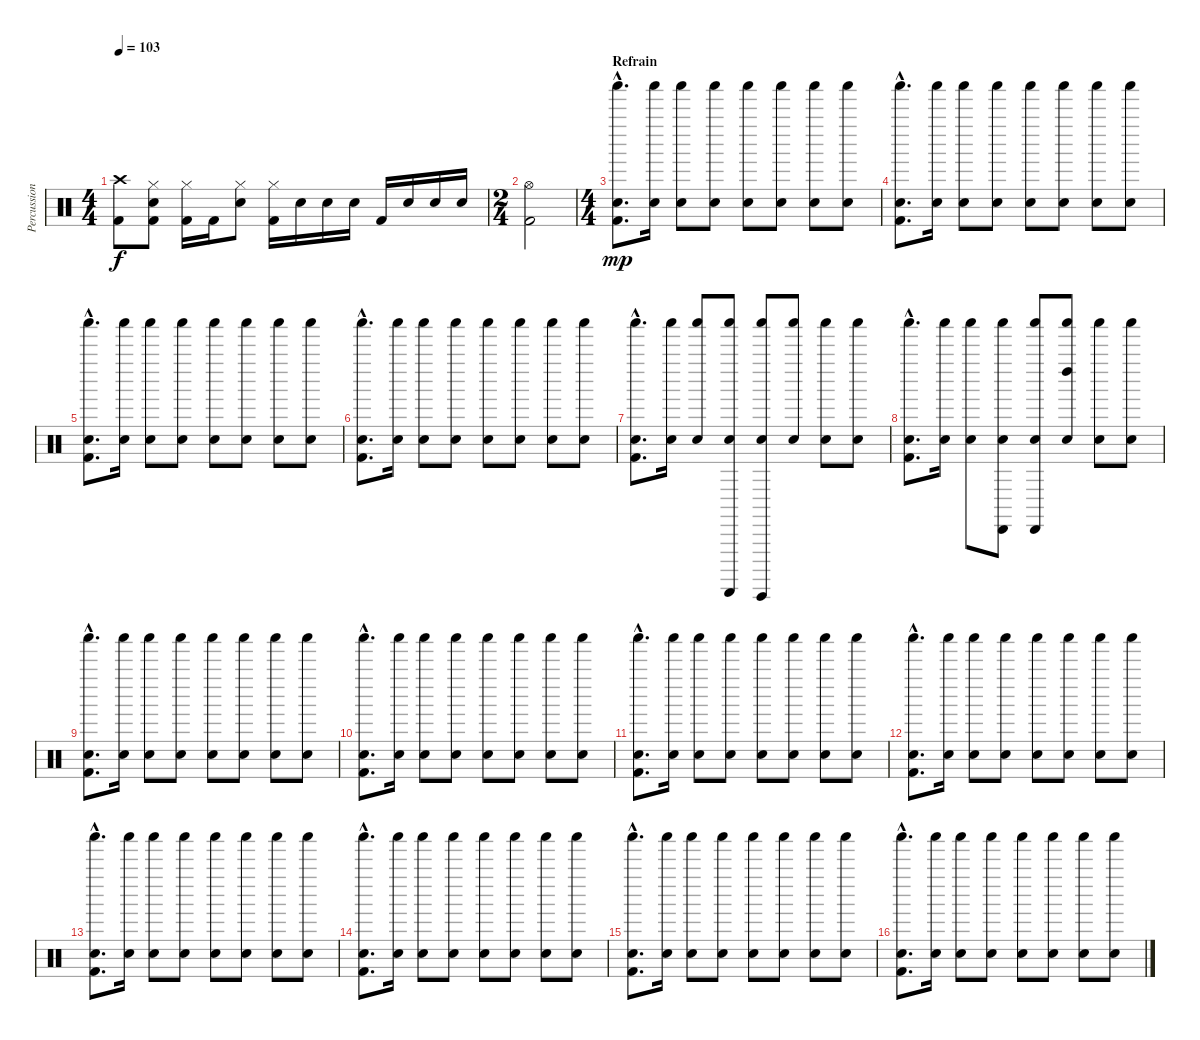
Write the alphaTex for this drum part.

\track ("Percussion" "Percussion") {instrument percussion}
\staff {score}
\articulation defaults
\ts (4 4)
\tempo 103
\clef neutral
\ks c
("Crash high (hit)" "Kick (hit) 2").8{dy f} ("Hi-Hat (closed)" "Electric Snare (hit)" "Kick (hit) 2").8 ("Hi-Hat (closed)" "Kick (hit) 2").16 "Kick (hit) 2".16 ("Hi-Hat (closed)" "Electric Snare (hit)").8 ("Hi-Hat (closed)" "Kick (hit) 2").16 "Electric Snare (hit)".16 "Electric Snare (hit)".16 "Electric Snare (hit)".16 "Kick (hit) 2".16 "Electric Snare (hit)".16 "Electric Snare (hit)".16 "Electric Snare (hit)".16 |
\ts (2 4)
("Hi-Hat (open)" "Kick (hit) 2").2 |
\ts (4 4)
\section ("" "Refrain")
("Electric Snare (hit)"{hac} "Shaker (hit)"{hac} "Kick (hit) 2"{hac}).8{d dy mp} ("Electric Snare (hit)" "Shaker (hit)").16 ("Electric Snare (hit)" "Shaker (hit)").8 ("Electric Snare (hit)" "Shaker (hit)").8 ("Electric Snare (hit)" "Shaker (hit)").8 ("Electric Snare (hit)" "Shaker (hit)").8 ("Electric Snare (hit)" "Shaker (hit)").8 ("Electric Snare (hit)" "Shaker (hit)").8 |
("Electric Snare (hit)"{hac} "Shaker (hit)"{hac} "Kick (hit) 2"{hac}).8{d} ("Electric Snare (hit)" "Shaker (hit)").16 ("Electric Snare (hit)" "Shaker (hit)").8 ("Electric Snare (hit)" "Shaker (hit)").8 ("Electric Snare (hit)" "Shaker (hit)").8 ("Electric Snare (hit)" "Shaker (hit)").8 ("Electric Snare (hit)" "Shaker (hit)").8 ("Electric Snare (hit)" "Shaker (hit)").8 |
("Electric Snare (hit)"{hac} "Shaker (hit)"{hac} "Kick (hit) 2"{hac}).8{d} ("Electric Snare (hit)" "Shaker (hit)").16 ("Electric Snare (hit)" "Shaker (hit)").8 ("Electric Snare (hit)" "Shaker (hit)").8 ("Electric Snare (hit)" "Shaker (hit)").8 ("Electric Snare (hit)" "Shaker (hit)").8 ("Electric Snare (hit)" "Shaker (hit)").8 ("Electric Snare (hit)" "Shaker (hit)").8 |
("Electric Snare (hit)"{hac} "Shaker (hit)"{hac} "Kick (hit) 2"{hac}).8{d} ("Electric Snare (hit)" "Shaker (hit)").16 ("Electric Snare (hit)" "Shaker (hit)").8 ("Electric Snare (hit)" "Shaker (hit)").8 ("Electric Snare (hit)" "Shaker (hit)").8 ("Electric Snare (hit)" "Shaker (hit)").8 ("Electric Snare (hit)" "Shaker (hit)").8 ("Electric Snare (hit)" "Shaker (hit)").8 |
("Electric Snare (hit)"{hac} "Shaker (hit)"{hac} "Kick (hit) 2"{hac}).8{d} ("Electric Snare (hit)" "Shaker (hit)").16 ("Electric Snare (hit)" "Shaker (hit)").8 ("Guiro (scrap-return)" "Electric Snare (hit)" "Shaker (hit)").8 ("Guiro (hit)" "Electric Snare (hit)" "Shaker (hit)").8 ("Electric Snare (hit)" "Shaker (hit)").8 ("Electric Snare (hit)" "Shaker (hit)").8 ("Electric Snare (hit)" "Shaker (hit)").8 |
("Electric Snare (hit)"{hac} "Shaker (hit)"{hac} "Kick (hit) 2"{hac}).8{d} ("Electric Snare (hit)" "Shaker (hit)").16 ("Electric Snare (hit)" "Shaker (hit)").8 ("Cabasa (hit)" "Electric Snare (hit)" "Shaker (hit)").8 ("Cabasa (hit)" "Electric Snare (hit)" "Shaker (hit)").8 ("Left Maraca (hit)" "Electric Snare (hit)" "Shaker (hit)").8 ("Electric Snare (hit)" "Shaker (hit)").8 ("Electric Snare (hit)" "Shaker (hit)").8 |
("Electric Snare (hit)"{hac} "Shaker (hit)"{hac} "Kick (hit) 2"{hac}).8{d} ("Electric Snare (hit)" "Shaker (hit)").16 ("Electric Snare (hit)" "Shaker (hit)").8 ("Electric Snare (hit)" "Shaker (hit)").8 ("Electric Snare (hit)" "Shaker (hit)").8 ("Electric Snare (hit)" "Shaker (hit)").8 ("Electric Snare (hit)" "Shaker (hit)").8 ("Electric Snare (hit)" "Shaker (hit)").8 |
("Electric Snare (hit)"{hac} "Shaker (hit)"{hac} "Kick (hit) 2"{hac}).8{d} ("Electric Snare (hit)" "Shaker (hit)").16 ("Electric Snare (hit)" "Shaker (hit)").8 ("Electric Snare (hit)" "Shaker (hit)").8 ("Electric Snare (hit)" "Shaker (hit)").8 ("Electric Snare (hit)" "Shaker (hit)").8 ("Electric Snare (hit)" "Shaker (hit)").8 ("Electric Snare (hit)" "Shaker (hit)").8 |
("Electric Snare (hit)"{hac} "Shaker (hit)"{hac} "Kick (hit) 2"{hac}).8{d} ("Electric Snare (hit)" "Shaker (hit)").16 ("Electric Snare (hit)" "Shaker (hit)").8 ("Electric Snare (hit)" "Shaker (hit)").8 ("Electric Snare (hit)" "Shaker (hit)").8 ("Electric Snare (hit)" "Shaker (hit)").8 ("Electric Snare (hit)" "Shaker (hit)").8 ("Electric Snare (hit)" "Shaker (hit)").8 |
("Electric Snare (hit)"{hac} "Shaker (hit)"{hac} "Kick (hit) 2"{hac}).8{d} ("Electric Snare (hit)" "Shaker (hit)").16 ("Electric Snare (hit)" "Shaker (hit)").8 ("Electric Snare (hit)" "Shaker (hit)").8 ("Electric Snare (hit)" "Shaker (hit)").8 ("Electric Snare (hit)" "Shaker (hit)").8 ("Electric Snare (hit)" "Shaker (hit)").8 ("Electric Snare (hit)" "Shaker (hit)").8 |
("Electric Snare (hit)"{hac} "Shaker (hit)"{hac} "Kick (hit) 2"{hac}).8{d} ("Electric Snare (hit)" "Shaker (hit)").16 ("Electric Snare (hit)" "Shaker (hit)").8 ("Electric Snare (hit)" "Shaker (hit)").8 ("Electric Snare (hit)" "Shaker (hit)").8 ("Electric Snare (hit)" "Shaker (hit)").8 ("Electric Snare (hit)" "Shaker (hit)").8 ("Electric Snare (hit)" "Shaker (hit)").8 |
("Electric Snare (hit)"{hac} "Shaker (hit)"{hac} "Kick (hit) 2"{hac}).8{d} ("Electric Snare (hit)" "Shaker (hit)").16 ("Electric Snare (hit)" "Shaker (hit)").8 ("Electric Snare (hit)" "Shaker (hit)").8 ("Electric Snare (hit)" "Shaker (hit)").8 ("Electric Snare (hit)" "Shaker (hit)").8 ("Electric Snare (hit)" "Shaker (hit)").8 ("Electric Snare (hit)" "Shaker (hit)").8 |
("Electric Snare (hit)"{hac} "Shaker (hit)"{hac} "Kick (hit) 2"{hac}).8{d} ("Electric Snare (hit)" "Shaker (hit)").16 ("Electric Snare (hit)" "Shaker (hit)").8 ("Electric Snare (hit)" "Shaker (hit)").8 ("Electric Snare (hit)" "Shaker (hit)").8 ("Electric Snare (hit)" "Shaker (hit)").8 ("Electric Snare (hit)" "Shaker (hit)").8 ("Electric Snare (hit)" "Shaker (hit)").8 |
("Electric Snare (hit)"{hac} "Shaker (hit)"{hac} "Kick (hit) 2"{hac}).8{d} ("Electric Snare (hit)" "Shaker (hit)").16 ("Electric Snare (hit)" "Shaker (hit)").8 ("Electric Snare (hit)" "Shaker (hit)").8 ("Electric Snare (hit)" "Shaker (hit)").8 ("Electric Snare (hit)" "Shaker (hit)").8 ("Electric Snare (hit)" "Shaker (hit)").8 ("Electric Snare (hit)" "Shaker (hit)").8
